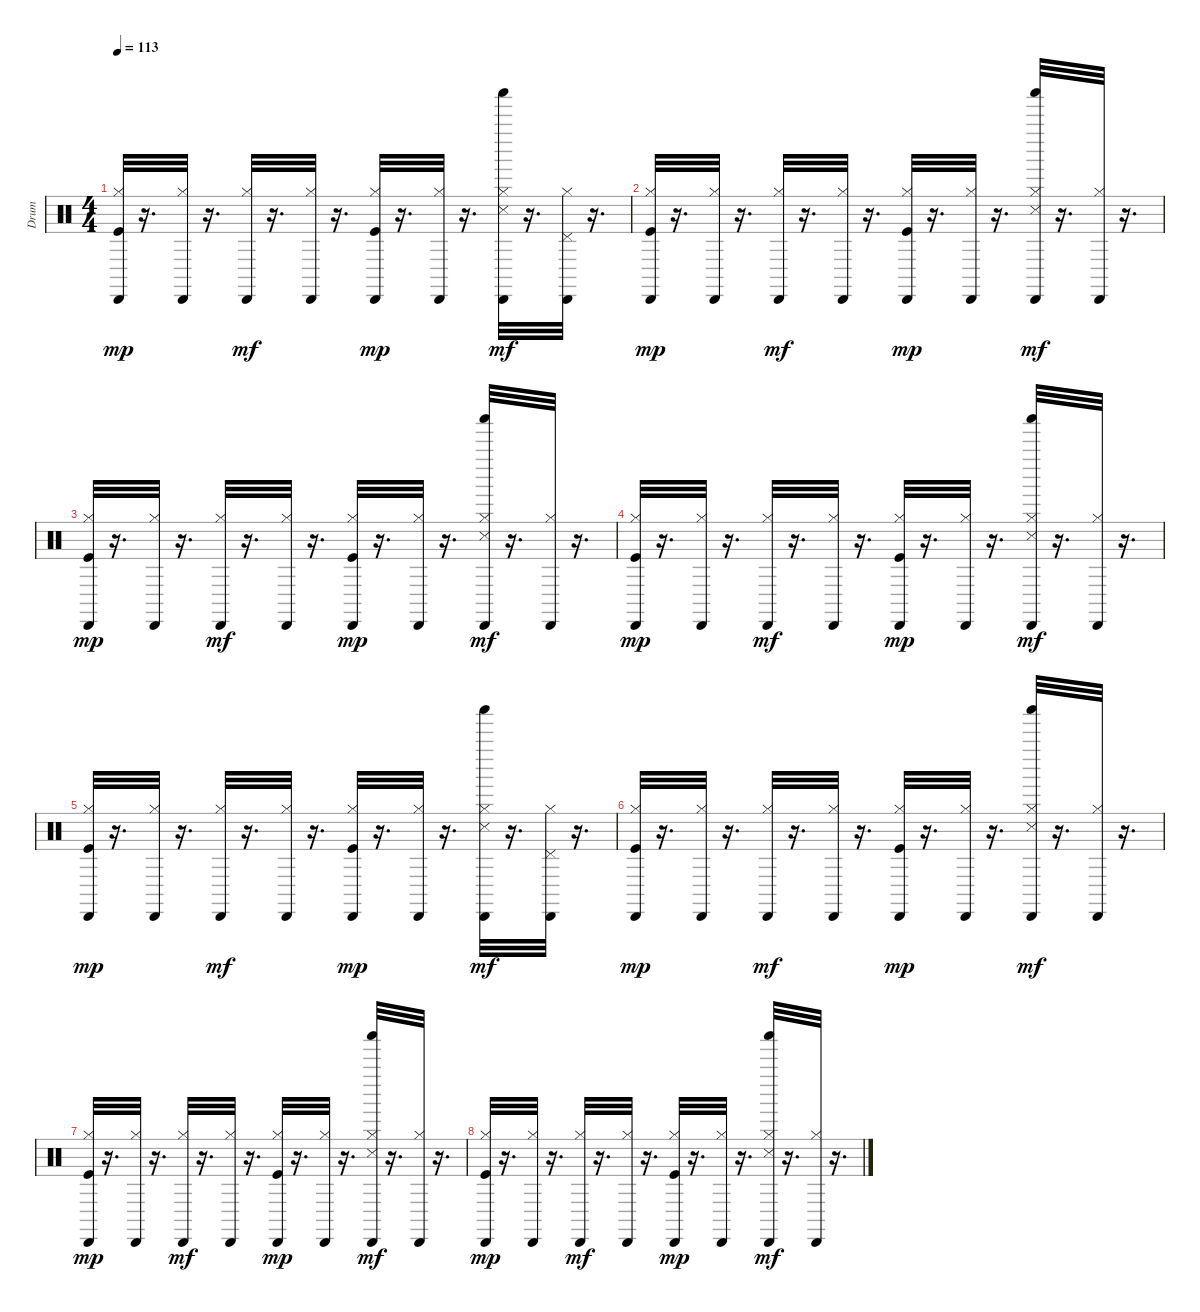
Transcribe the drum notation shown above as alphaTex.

\track ("Drum" "Drum") {instrument percussion}
\staff {score}
\articulation defaults
\ts (4 4)
\tempo 113
\clef neutral
\ks c
("Hi-Hat (closed)" "Kick (hit)" "Cabasa (hit)").32{dy mp} r.16{d} ("Hi-Hat (closed)" "Cabasa (hit)").32 r.16{d} ("Hi-Hat (closed)" "Cabasa (hit)").32{dy mf} r.16{d} ("Hi-Hat (closed)" "Cabasa (hit)").32 r.16{d} ("Hi-Hat (closed)" "Kick (hit)" "Cabasa (hit)").32{dy mp} r.16{d} ("Hi-Hat (closed)" "Cabasa (hit)").32 r.16{d} ("Hi-Hat (closed)" "Shaker (hit)" "Snare (side stick) 3" "Cabasa (hit)").32{dy mf} r.16{d} ("Hi-Hat (closed)" "Pedal Hi-Hat (hit)" "Cabasa (hit)").32 r.16{d} |
("Hi-Hat (closed)" "Kick (hit)" "Cabasa (hit)").32{dy mp} r.16{d} ("Hi-Hat (closed)" "Cabasa (hit)").32 r.16{d} ("Hi-Hat (closed)" "Cabasa (hit)").32{dy mf} r.16{d} ("Hi-Hat (closed)" "Cabasa (hit)").32 r.16{d} ("Hi-Hat (closed)" "Kick (hit)" "Cabasa (hit)").32{dy mp} r.16{d} ("Hi-Hat (closed)" "Cabasa (hit)").32 r.16{d} ("Hi-Hat (closed)" "Shaker (hit)" "Snare (side stick) 3" "Cabasa (hit)").32{dy mf} r.16{d} ("Hi-Hat (closed)" "Cabasa (hit)").32 r.16{d} |
("Hi-Hat (closed)" "Kick (hit)" "Cabasa (hit)").32{dy mp} r.16{d} ("Hi-Hat (closed)" "Cabasa (hit)").32 r.16{d} ("Hi-Hat (closed)" "Cabasa (hit)").32{dy mf} r.16{d} ("Hi-Hat (closed)" "Cabasa (hit)").32 r.16{d} ("Hi-Hat (closed)" "Kick (hit)" "Cabasa (hit)").32{dy mp} r.16{d} ("Hi-Hat (closed)" "Cabasa (hit)").32 r.16{d} ("Hi-Hat (closed)" "Shaker (hit)" "Snare (side stick) 3" "Cabasa (hit)").32{dy mf} r.16{d} ("Hi-Hat (closed)" "Cabasa (hit)").32 r.16{d} |
("Hi-Hat (closed)" "Kick (hit)" "Cabasa (hit)").32{dy mp} r.16{d} ("Hi-Hat (closed)" "Cabasa (hit)").32 r.16{d} ("Hi-Hat (closed)" "Cabasa (hit)").32{dy mf} r.16{d} ("Hi-Hat (closed)" "Cabasa (hit)").32 r.16{d} ("Hi-Hat (closed)" "Kick (hit)" "Cabasa (hit)").32{dy mp} r.16{d} ("Hi-Hat (closed)" "Cabasa (hit)").32 r.16{d} ("Hi-Hat (closed)" "Shaker (hit)" "Snare (side stick) 3" "Cabasa (hit)").32{dy mf} r.16{d} ("Hi-Hat (closed)" "Cabasa (hit)").32 r.16{d} |
("Hi-Hat (closed)" "Kick (hit)" "Cabasa (hit)").32{dy mp} r.16{d} ("Hi-Hat (closed)" "Cabasa (hit)").32 r.16{d} ("Hi-Hat (closed)" "Cabasa (hit)").32{dy mf} r.16{d} ("Hi-Hat (closed)" "Cabasa (hit)").32 r.16{d} ("Hi-Hat (closed)" "Kick (hit)" "Cabasa (hit)").32{dy mp} r.16{d} ("Hi-Hat (closed)" "Cabasa (hit)").32 r.16{d} ("Hi-Hat (closed)" "Shaker (hit)" "Snare (side stick) 3" "Cabasa (hit)").32{dy mf} r.16{d} ("Hi-Hat (closed)" "Pedal Hi-Hat (hit)" "Cabasa (hit)").32 r.16{d} |
("Hi-Hat (closed)" "Kick (hit)" "Cabasa (hit)").32{dy mp} r.16{d} ("Hi-Hat (closed)" "Cabasa (hit)").32 r.16{d} ("Hi-Hat (closed)" "Cabasa (hit)").32{dy mf} r.16{d} ("Hi-Hat (closed)" "Cabasa (hit)").32 r.16{d} ("Hi-Hat (closed)" "Kick (hit)" "Cabasa (hit)").32{dy mp} r.16{d} ("Hi-Hat (closed)" "Cabasa (hit)").32 r.16{d} ("Hi-Hat (closed)" "Shaker (hit)" "Snare (side stick) 3" "Cabasa (hit)").32{dy mf} r.16{d} ("Hi-Hat (closed)" "Cabasa (hit)").32 r.16{d} |
("Hi-Hat (closed)" "Kick (hit)" "Cabasa (hit)").32{dy mp} r.16{d} ("Hi-Hat (closed)" "Cabasa (hit)").32 r.16{d} ("Hi-Hat (closed)" "Cabasa (hit)").32{dy mf} r.16{d} ("Hi-Hat (closed)" "Cabasa (hit)").32 r.16{d} ("Hi-Hat (closed)" "Kick (hit)" "Cabasa (hit)").32{dy mp} r.16{d} ("Hi-Hat (closed)" "Cabasa (hit)").32 r.16{d} ("Hi-Hat (closed)" "Shaker (hit)" "Snare (side stick) 3" "Cabasa (hit)").32{dy mf} r.16{d} ("Hi-Hat (closed)" "Cabasa (hit)").32 r.16{d} |
("Hi-Hat (closed)" "Kick (hit)" "Cabasa (hit)").32{dy mp} r.16{d} ("Hi-Hat (closed)" "Cabasa (hit)").32 r.16{d} ("Hi-Hat (closed)" "Cabasa (hit)").32{dy mf} r.16{d} ("Hi-Hat (closed)" "Cabasa (hit)").32 r.16{d} ("Hi-Hat (closed)" "Kick (hit)" "Cabasa (hit)").32{dy mp} r.16{d} ("Hi-Hat (closed)" "Cabasa (hit)").32 r.16{d} ("Hi-Hat (closed)" "Shaker (hit)" "Snare (side stick) 3" "Cabasa (hit)").32{dy mf} r.16{d} ("Hi-Hat (closed)" "Cabasa (hit)").32 r.16{d}
